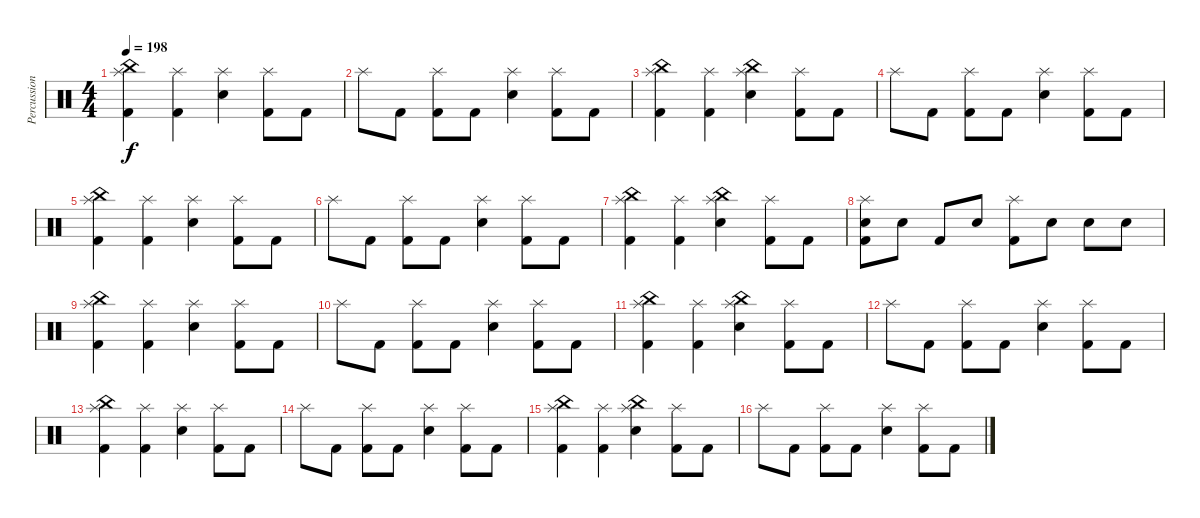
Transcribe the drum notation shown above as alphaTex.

\track ("Percussion" "Percussion") {instrument percussion}
\staff {score}
\articulation defaults
\ts (4 4)
\tempo 198
\clef neutral
\ks c
("China (hit)" "Splash (hit)" "Kick (hit) 2").4{dy f} ("Splash (hit)" "Kick (hit) 2").4 ("Splash (hit)" "Electric Snare (hit)").4 ("Splash (hit)" "Kick (hit) 2").8 "Kick (hit) 2".8 |
"Splash (hit)".8 "Kick (hit) 2".8 ("Splash (hit)" "Kick (hit) 2").8 "Kick (hit) 2".8 ("Splash (hit)" "Electric Snare (hit)").4 ("Splash (hit)" "Kick (hit) 2").8 "Kick (hit) 2".8 |
("China (hit)" "Splash (hit)" "Kick (hit) 2").4 ("Splash (hit)" "Kick (hit) 2").4 ("China (hit)" "Splash (hit)" "Electric Snare (hit)").4 ("Splash (hit)" "Kick (hit) 2").8 "Kick (hit) 2".8 |
"Splash (hit)".8 "Kick (hit) 2".8 ("Splash (hit)" "Kick (hit) 2").8 "Kick (hit) 2".8 ("Splash (hit)" "Electric Snare (hit)").4 ("Splash (hit)" "Kick (hit) 2").8 "Kick (hit) 2".8 |
("China (hit)" "Splash (hit)" "Kick (hit) 2").4 ("Splash (hit)" "Kick (hit) 2").4 ("Splash (hit)" "Electric Snare (hit)").4 ("Splash (hit)" "Kick (hit) 2").8 "Kick (hit) 2".8 |
"Splash (hit)".8 "Kick (hit) 2".8 ("Splash (hit)" "Kick (hit) 2").8 "Kick (hit) 2".8 ("Splash (hit)" "Electric Snare (hit)").4 ("Splash (hit)" "Kick (hit) 2").8 "Kick (hit) 2".8 |
("China (hit)" "Splash (hit)" "Kick (hit) 2").4 ("Splash (hit)" "Kick (hit) 2").4 ("China (hit)" "Splash (hit)" "Electric Snare (hit)").4 ("Splash (hit)" "Kick (hit) 2").8 "Kick (hit) 2".8 |
("Splash (hit)" "Electric Snare (hit)" "Kick (hit) 2").8 "Electric Snare (hit)".8 "Kick (hit) 2".8 "Electric Snare (hit)".8 ("Splash (hit)" "Kick (hit) 2").8 "Electric Snare (hit)".8 "Electric Snare (hit)".8 "Electric Snare (hit)".8 |
("China (hit)" "Splash (hit)" "Kick (hit) 2").4 ("Splash (hit)" "Kick (hit) 2").4 ("Splash (hit)" "Electric Snare (hit)").4 ("Splash (hit)" "Kick (hit) 2").8 "Kick (hit) 2".8 |
"Splash (hit)".8 "Kick (hit) 2".8 ("Splash (hit)" "Kick (hit) 2").8 "Kick (hit) 2".8 ("Splash (hit)" "Electric Snare (hit)").4 ("Splash (hit)" "Kick (hit) 2").8 "Kick (hit) 2".8 |
("China (hit)" "Splash (hit)" "Kick (hit) 2").4 ("Splash (hit)" "Kick (hit) 2").4 ("China (hit)" "Splash (hit)" "Electric Snare (hit)").4 ("Splash (hit)" "Kick (hit) 2").8 "Kick (hit) 2".8 |
"Splash (hit)".8 "Kick (hit) 2".8 ("Splash (hit)" "Kick (hit) 2").8 "Kick (hit) 2".8 ("Splash (hit)" "Electric Snare (hit)").4 ("Splash (hit)" "Kick (hit) 2").8 "Kick (hit) 2".8 |
("China (hit)" "Splash (hit)" "Kick (hit) 2").4 ("Splash (hit)" "Kick (hit) 2").4 ("Splash (hit)" "Electric Snare (hit)").4 ("Splash (hit)" "Kick (hit) 2").8 "Kick (hit) 2".8 |
"Splash (hit)".8 "Kick (hit) 2".8 ("Splash (hit)" "Kick (hit) 2").8 "Kick (hit) 2".8 ("Splash (hit)" "Electric Snare (hit)").4 ("Splash (hit)" "Kick (hit) 2").8 "Kick (hit) 2".8 |
("China (hit)" "Splash (hit)" "Kick (hit) 2").4 ("Splash (hit)" "Kick (hit) 2").4 ("China (hit)" "Splash (hit)" "Electric Snare (hit)").4 ("Splash (hit)" "Kick (hit) 2").8 "Kick (hit) 2".8 |
"Splash (hit)".8 "Kick (hit) 2".8 ("Splash (hit)" "Kick (hit) 2").8 "Kick (hit) 2".8 ("Splash (hit)" "Electric Snare (hit)").4 ("Splash (hit)" "Kick (hit) 2").8 "Kick (hit) 2".8
